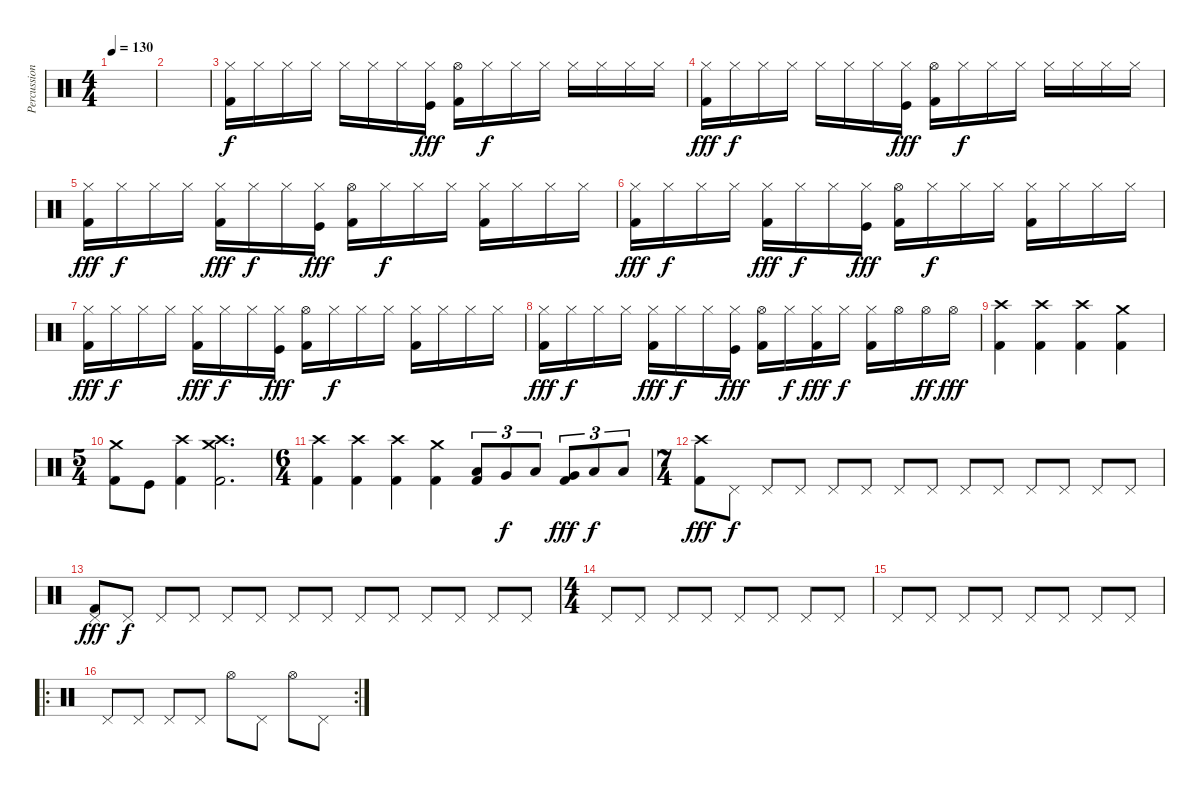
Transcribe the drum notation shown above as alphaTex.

\track ("Percussion" "Percussion") {instrument percussion}
\staff {score}
\articulation defaults
\ts (4 4)
\tempo 130
\clef neutral
\ks c
|
|
("Kick (hit) 2" "Hi-Hat (closed)").16 "Hi-Hat (closed)".16{dy f} "Hi-Hat (closed)".16 "Hi-Hat (closed)".16 "Hi-Hat (closed)".16 "Hi-Hat (closed)".16 "Hi-Hat (closed)".16 ("Kick (hit)" "Hi-Hat (closed)").16{dy fff} ("Kick (hit) 2" "Hi-Hat (open)").16 "Hi-Hat (closed)".16{dy f} "Hi-Hat (closed)".16 "Hi-Hat (closed)".16 "Hi-Hat (closed)".16 "Hi-Hat (closed)".16 "Hi-Hat (closed)".16 "Hi-Hat (closed)".16 |
("Kick (hit) 2" "Hi-Hat (closed)").16{dy fff} "Hi-Hat (closed)".16{dy f} "Hi-Hat (closed)".16 "Hi-Hat (closed)".16 "Hi-Hat (closed)".16 "Hi-Hat (closed)".16 "Hi-Hat (closed)".16 ("Kick (hit)" "Hi-Hat (closed)").16{dy fff} ("Kick (hit) 2" "Hi-Hat (open)").16 "Hi-Hat (closed)".16{dy f} "Hi-Hat (closed)".16 "Hi-Hat (closed)".16 "Hi-Hat (closed)".16 "Hi-Hat (closed)".16 "Hi-Hat (closed)".16 "Hi-Hat (closed)".16 |
("Kick (hit) 2" "Hi-Hat (closed)").16{dy fff} "Hi-Hat (closed)".16{dy f} "Hi-Hat (closed)".16 "Hi-Hat (closed)".16 ("Kick (hit) 2" "Hi-Hat (closed)").16{dy fff} "Hi-Hat (closed)".16{dy f} "Hi-Hat (closed)".16 ("Kick (hit)" "Hi-Hat (closed)").16{dy fff} ("Kick (hit) 2" "Hi-Hat (open)").16 "Hi-Hat (closed)".16{dy f} "Hi-Hat (closed)".16 "Hi-Hat (closed)".16 ("Kick (hit) 2" "Hi-Hat (closed)").16 "Hi-Hat (closed)".16 "Hi-Hat (closed)".16 "Hi-Hat (closed)".16 |
("Kick (hit) 2" "Hi-Hat (closed)").16{dy fff} "Hi-Hat (closed)".16{dy f} "Hi-Hat (closed)".16 "Hi-Hat (closed)".16 ("Kick (hit) 2" "Hi-Hat (closed)").16{dy fff} "Hi-Hat (closed)".16{dy f} "Hi-Hat (closed)".16 ("Kick (hit)" "Hi-Hat (closed)").16{dy fff} ("Kick (hit) 2" "Hi-Hat (open)").16 "Hi-Hat (closed)".16{dy f} "Hi-Hat (closed)".16 "Hi-Hat (closed)".16 ("Kick (hit) 2" "Hi-Hat (closed)").16 "Hi-Hat (closed)".16 "Hi-Hat (closed)".16 "Hi-Hat (closed)".16 |
("Kick (hit) 2" "Hi-Hat (closed)").16{dy fff} "Hi-Hat (closed)".16{dy f} "Hi-Hat (closed)".16 "Hi-Hat (closed)".16 ("Kick (hit) 2" "Hi-Hat (closed)").16{dy fff} "Hi-Hat (closed)".16{dy f} "Hi-Hat (closed)".16 ("Kick (hit)" "Hi-Hat (closed)").16{dy fff} ("Kick (hit) 2" "Hi-Hat (open)").16 "Hi-Hat (closed)".16{dy f} "Hi-Hat (closed)".16 "Hi-Hat (closed)".16 ("Kick (hit) 2" "Hi-Hat (closed)").16 "Hi-Hat (closed)".16 "Hi-Hat (closed)".16 "Hi-Hat (closed)".16 |
("Kick (hit) 2" "Hi-Hat (closed)").16{dy fff} "Hi-Hat (closed)".16{dy f} "Hi-Hat (closed)".16 "Hi-Hat (closed)".16 ("Kick (hit) 2" "Hi-Hat (closed)").16{dy fff} "Hi-Hat (closed)".16{dy f} "Hi-Hat (closed)".16 ("Kick (hit)" "Hi-Hat (closed)").16{dy fff} ("Kick (hit) 2" "Hi-Hat (open)").16 "Hi-Hat (closed)".16{dy f} ("Kick (hit) 2" "Hi-Hat (closed)").16{dy fff} "Hi-Hat (closed)".16{dy f} ("Kick (hit) 2" "Hi-Hat (closed)").16 "Hi-Hat (open)".16 "Hi-Hat (open)".16{dy ff} "Hi-Hat (open)".16{dy fff} |
("Kick (hit) 2" "Crash high (hit)").4 ("Kick (hit) 2" "Crash high (hit)").4 ("Kick (hit) 2" "Crash high (hit)").4 ("Kick (hit) 2" "Crash medium (hit)").4 |
\ts (5 4)
("Kick (hit) 2" "Crash medium (hit)").8 "Kick (hit)".8 ("Kick (hit) 2" "Crash high (hit)").4 ("Kick (hit) 2" "Crash medium (hit)" "Crash high (hit)").2{d} |
\ts (6 4)
("Kick (hit) 2" "Crash high (hit)").4 ("Kick (hit) 2" "Crash high (hit)").4 ("Kick (hit) 2" "Crash high (hit)").4 ("Kick (hit) 2" "Crash medium (hit)").4 ("Kick (hit) 2" "Low Tom (hit)").8{tu (3 2)} "Very Low Tom (hit)".8{tu (3 2) dy f} "Low Tom (hit)".8{tu (3 2)} ("Kick (hit) 2" "Very Low Tom (hit)").8{tu (3 2) dy fff} "Low Tom (hit)".8{tu (3 2) dy f} "Low Floor Tom (hit)".8{tu (3 2)} |
\ts (7 4)
("Kick (hit) 2" "Crash high (hit)").8{dy fff} "Pedal Hi-Hat (hit)".8{dy f} "Pedal Hi-Hat (hit)".8 "Pedal Hi-Hat (hit)".8 "Pedal Hi-Hat (hit)".8 "Pedal Hi-Hat (hit)".8 "Pedal Hi-Hat (hit)".8 "Pedal Hi-Hat (hit)".8 "Pedal Hi-Hat (hit)".8 "Pedal Hi-Hat (hit)".8 "Pedal Hi-Hat (hit)".8 "Pedal Hi-Hat (hit)".8 "Pedal Hi-Hat (hit)".8 "Pedal Hi-Hat (hit)".8 |
("Kick (hit) 2" "Pedal Hi-Hat (hit)").8{dy fff} "Pedal Hi-Hat (hit)".8{dy f} "Pedal Hi-Hat (hit)".8 "Pedal Hi-Hat (hit)".8 "Pedal Hi-Hat (hit)".8 "Pedal Hi-Hat (hit)".8 "Pedal Hi-Hat (hit)".8 "Pedal Hi-Hat (hit)".8 "Pedal Hi-Hat (hit)".8 "Pedal Hi-Hat (hit)".8 "Pedal Hi-Hat (hit)".8 "Pedal Hi-Hat (hit)".8 "Pedal Hi-Hat (hit)".8 "Pedal Hi-Hat (hit)".8 |
\ts (4 4)
"Pedal Hi-Hat (hit)".8 "Pedal Hi-Hat (hit)".8 "Pedal Hi-Hat (hit)".8 "Pedal Hi-Hat (hit)".8 "Pedal Hi-Hat (hit)".8 "Pedal Hi-Hat (hit)".8 "Pedal Hi-Hat (hit)".8 "Pedal Hi-Hat (hit)".8 |
"Pedal Hi-Hat (hit)".8 "Pedal Hi-Hat (hit)".8 "Pedal Hi-Hat (hit)".8 "Pedal Hi-Hat (hit)".8 "Pedal Hi-Hat (hit)".8 "Pedal Hi-Hat (hit)".8 "Pedal Hi-Hat (hit)".8 "Pedal Hi-Hat (hit)".8 |
\ro
\rc 2 "Pedal Hi-Hat (hit)".8 "Pedal Hi-Hat (hit)".8 "Pedal Hi-Hat (hit)".8 "Pedal Hi-Hat (hit)".8 "Hi-Hat (open)".8 "Pedal Hi-Hat (hit)".8 "Hi-Hat (open)".8 "Pedal Hi-Hat (hit)".8
